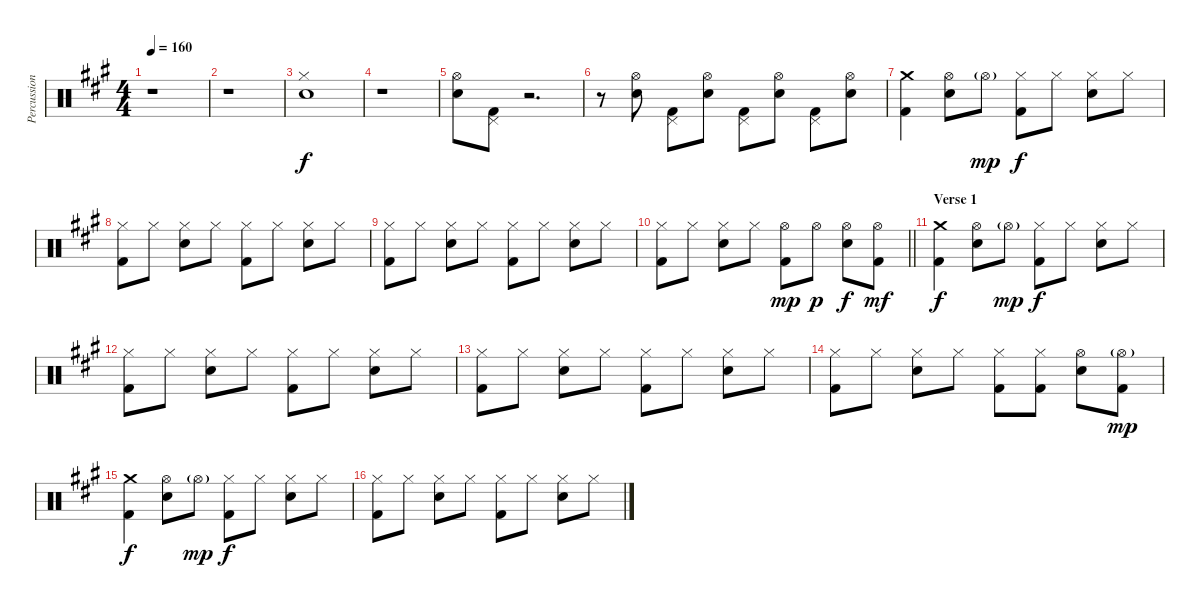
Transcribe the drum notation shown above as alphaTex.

\track ("Percussion" "Percussion") {instrument percussion}
\staff {score}
\articulation defaults
\ts (4 4)
\tempo 160
\clef neutral
\ks a
r.1{dy f} |
r.1 |
("Hi-Hat (closed)" "Electric Snare (hit)").1 |
r.1 |
("Hi-Hat (open)" "Electric Snare (hit)").8 ("Pedal Hi-Hat (hit)" "Kick (hit) 2").8 r.2{d} |
r.8 ("Hi-Hat (open)" "Electric Snare (hit)").8 ("Pedal Hi-Hat (hit)" "Kick (hit) 2").8 ("Hi-Hat (open)" "Electric Snare (hit)").8 ("Pedal Hi-Hat (hit)" "Kick (hit) 2").8 ("Hi-Hat (open)" "Electric Snare (hit)").8 ("Pedal Hi-Hat (hit)" "Kick (hit) 2").8 ("Hi-Hat (open)" "Electric Snare (hit)").8 |
("Crash medium (hit)" "Kick (hit) 2").4 ("Hi-Hat (open)" "Electric Snare (hit)").8 "Hi-Hat (open)"{g}.8{dy mp} ("Hi-Hat (closed)" "Kick (hit) 2").8{dy f} "Hi-Hat (closed)".8 ("Hi-Hat (closed)" "Electric Snare (hit)").8 "Hi-Hat (closed)".8 |
("Hi-Hat (closed)" "Kick (hit) 2").8 "Hi-Hat (closed)".8 ("Hi-Hat (closed)" "Electric Snare (hit)").8 "Hi-Hat (closed)".8 ("Hi-Hat (closed)" "Kick (hit) 2").8 "Hi-Hat (closed)".8 ("Hi-Hat (closed)" "Electric Snare (hit)").8 "Hi-Hat (closed)".8 |
("Hi-Hat (closed)" "Kick (hit) 2").8 "Hi-Hat (closed)".8 ("Hi-Hat (closed)" "Electric Snare (hit)").8 "Hi-Hat (closed)".8 ("Hi-Hat (closed)" "Kick (hit) 2").8 "Hi-Hat (closed)".8 ("Hi-Hat (closed)" "Electric Snare (hit)").8 "Hi-Hat (closed)".8 |
\barLineRight lightlight
("Hi-Hat (closed)" "Kick (hit) 2").8 "Hi-Hat (closed)".8 ("Hi-Hat (closed)" "Electric Snare (hit)").8 "Hi-Hat (closed)".8 ("Hi-Hat (open)" "Kick (hit) 2").8{dy mp} "Hi-Hat (open)".8{dy p} ("Hi-Hat (open)" "Electric Snare (hit)").8{dy f} ("Hi-Hat (open)" "Kick (hit) 2").8{dy mf} |
\section ("" "Verse 1")
("Crash medium (hit)" "Kick (hit) 2").4{dy f} ("Hi-Hat (open)" "Electric Snare (hit)").8 "Hi-Hat (open)"{g}.8{dy mp} ("Hi-Hat (closed)" "Kick (hit) 2").8{dy f} "Hi-Hat (closed)".8 ("Hi-Hat (closed)" "Electric Snare (hit)").8 "Hi-Hat (closed)".8 |
("Hi-Hat (closed)" "Kick (hit) 2").8 "Hi-Hat (closed)".8 ("Hi-Hat (closed)" "Electric Snare (hit)").8 "Hi-Hat (closed)".8 ("Hi-Hat (closed)" "Kick (hit) 2").8 "Hi-Hat (closed)".8 ("Hi-Hat (closed)" "Electric Snare (hit)").8 "Hi-Hat (closed)".8 |
("Hi-Hat (closed)" "Kick (hit) 2").8 "Hi-Hat (closed)".8 ("Hi-Hat (closed)" "Electric Snare (hit)").8 "Hi-Hat (closed)".8 ("Hi-Hat (closed)" "Kick (hit) 2").8 "Hi-Hat (closed)".8 ("Hi-Hat (closed)" "Electric Snare (hit)").8 "Hi-Hat (closed)".8 |
("Hi-Hat (closed)" "Kick (hit) 2").8 "Hi-Hat (closed)".8 ("Hi-Hat (closed)" "Electric Snare (hit)").8 "Hi-Hat (closed)".8 ("Hi-Hat (closed)" "Kick (hit) 2").8 ("Hi-Hat (closed)" "Kick (hit) 2").8 ("Hi-Hat (open)" "Electric Snare (hit)").8 ("Hi-Hat (open)"{g} "Kick (hit) 2").8{dy mp} |
("Crash medium (hit)" "Kick (hit) 2").4{dy f} ("Hi-Hat (open)" "Electric Snare (hit)").8 "Hi-Hat (open)"{g}.8{dy mp} ("Hi-Hat (closed)" "Kick (hit) 2").8{dy f} "Hi-Hat (closed)".8 ("Hi-Hat (closed)" "Electric Snare (hit)").8 "Hi-Hat (closed)".8 |
("Hi-Hat (closed)" "Kick (hit) 2").8 "Hi-Hat (closed)".8 ("Hi-Hat (closed)" "Electric Snare (hit)").8 "Hi-Hat (closed)".8 ("Hi-Hat (closed)" "Kick (hit) 2").8 "Hi-Hat (closed)".8 ("Hi-Hat (closed)" "Electric Snare (hit)").8 "Hi-Hat (closed)".8
